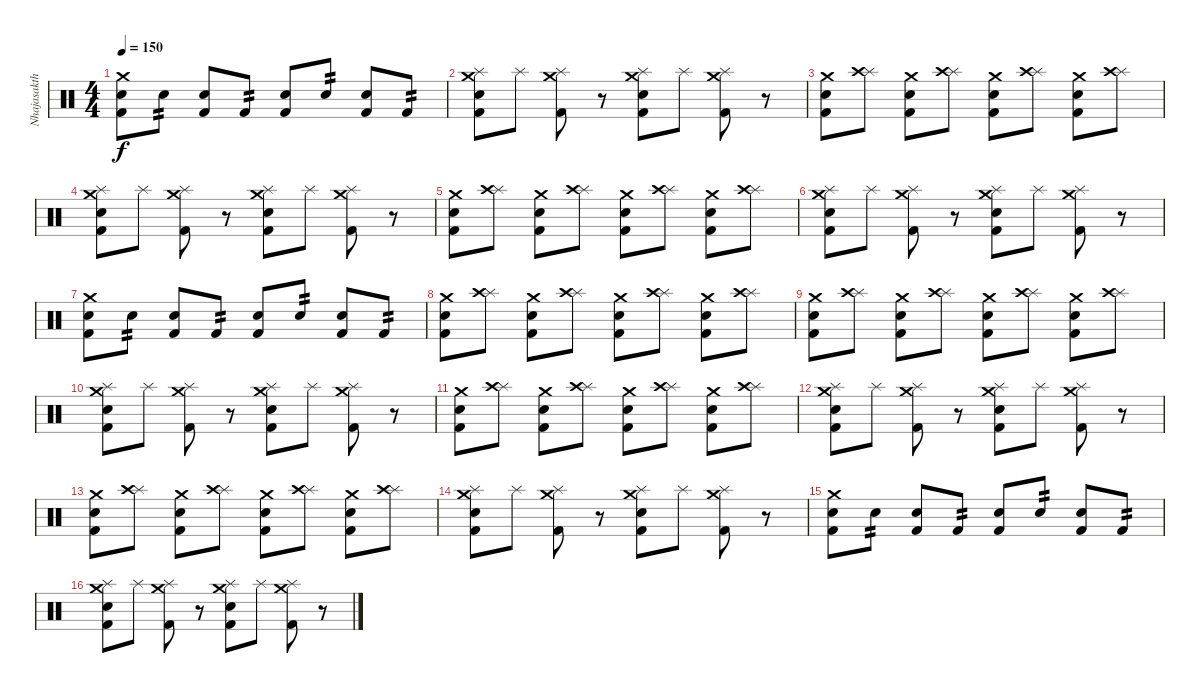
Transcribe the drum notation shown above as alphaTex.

\track ("Nhajasakthee" "Nhajasakth") {instrument percussion}
\staff {score}
\articulation defaults
\ts (4 4)
\tempo 150
\clef neutral
\ks c
("Crash medium (hit)" "Kick (hit) 2" "Electric Snare (hit)").8{dy f} "Electric Snare (hit)".8{tp 2} ("Kick (hit) 2" "Electric Snare (hit)").8 "Kick (hit) 2".8{tp 2} ("Kick (hit) 2" "Electric Snare (hit)").8 "Electric Snare (hit)".8{tp 2} ("Kick (hit) 2" "Electric Snare (hit)").8 "Kick (hit) 2".8{tp 2} |
("Splash (hit)" "Crash medium (hit)" "Kick (hit) 2" "Electric Snare (hit)").8 "Splash (hit)".8 ("Splash (hit)" "Crash medium (hit)" "Kick (hit) 2").8 r.8 ("Splash (hit)" "Crash medium (hit)" "Kick (hit) 2" "Electric Snare (hit)").8 "Splash (hit)".8 ("Splash (hit)" "Crash medium (hit)" "Kick (hit) 2").8 r.8 |
("Crash medium (hit)" "Kick (hit) 2" "Electric Snare (hit)").8 ("Splash (hit)" "Crash high (hit)").8 ("Crash medium (hit)" "Kick (hit) 2" "Electric Snare (hit)").8 ("Splash (hit)" "Crash high (hit)").8 ("Crash medium (hit)" "Kick (hit) 2" "Electric Snare (hit)").8 ("Splash (hit)" "Crash high (hit)").8 ("Crash medium (hit)" "Kick (hit) 2" "Electric Snare (hit)").8 ("Splash (hit)" "Crash high (hit)").8 |
("Splash (hit)" "Crash medium (hit)" "Kick (hit) 2" "Electric Snare (hit)").8 "Splash (hit)".8 ("Splash (hit)" "Crash medium (hit)" "Kick (hit) 2").8 r.8 ("Splash (hit)" "Crash medium (hit)" "Kick (hit) 2" "Electric Snare (hit)").8 "Splash (hit)".8 ("Splash (hit)" "Crash medium (hit)" "Kick (hit) 2").8 r.8 |
("Crash medium (hit)" "Kick (hit) 2" "Electric Snare (hit)").8 ("Splash (hit)" "Crash high (hit)").8 ("Crash medium (hit)" "Kick (hit) 2" "Electric Snare (hit)").8 ("Splash (hit)" "Crash high (hit)").8 ("Crash medium (hit)" "Kick (hit) 2" "Electric Snare (hit)").8 ("Splash (hit)" "Crash high (hit)").8 ("Crash medium (hit)" "Kick (hit) 2" "Electric Snare (hit)").8 ("Splash (hit)" "Crash high (hit)").8 |
("Splash (hit)" "Crash medium (hit)" "Kick (hit) 2" "Electric Snare (hit)").8 "Splash (hit)".8 ("Splash (hit)" "Crash medium (hit)" "Kick (hit) 2").8 r.8 ("Splash (hit)" "Crash medium (hit)" "Kick (hit) 2" "Electric Snare (hit)").8 "Splash (hit)".8 ("Splash (hit)" "Crash medium (hit)" "Kick (hit) 2").8 r.8 |
("Crash medium (hit)" "Kick (hit) 2" "Electric Snare (hit)").8 "Electric Snare (hit)".8{tp 2} ("Kick (hit) 2" "Electric Snare (hit)").8 "Kick (hit) 2".8{tp 2} ("Kick (hit) 2" "Electric Snare (hit)").8 "Electric Snare (hit)".8{tp 2} ("Kick (hit) 2" "Electric Snare (hit)").8 "Kick (hit) 2".8{tp 2} |
("Crash medium (hit)" "Kick (hit) 2" "Electric Snare (hit)").8 ("Splash (hit)" "Crash high (hit)").8 ("Crash medium (hit)" "Kick (hit) 2" "Electric Snare (hit)").8 ("Splash (hit)" "Crash high (hit)").8 ("Crash medium (hit)" "Kick (hit) 2" "Electric Snare (hit)").8 ("Splash (hit)" "Crash high (hit)").8 ("Crash medium (hit)" "Kick (hit) 2" "Electric Snare (hit)").8 ("Splash (hit)" "Crash high (hit)").8 |
("Crash medium (hit)" "Kick (hit) 2" "Electric Snare (hit)").8 ("Splash (hit)" "Crash high (hit)").8 ("Crash medium (hit)" "Kick (hit) 2" "Electric Snare (hit)").8 ("Splash (hit)" "Crash high (hit)").8 ("Crash medium (hit)" "Kick (hit) 2" "Electric Snare (hit)").8 ("Splash (hit)" "Crash high (hit)").8 ("Crash medium (hit)" "Kick (hit) 2" "Electric Snare (hit)").8 ("Splash (hit)" "Crash high (hit)").8 |
("Splash (hit)" "Crash medium (hit)" "Kick (hit) 2" "Electric Snare (hit)").8 "Splash (hit)".8 ("Splash (hit)" "Crash medium (hit)" "Kick (hit) 2").8 r.8 ("Splash (hit)" "Crash medium (hit)" "Kick (hit) 2" "Electric Snare (hit)").8 "Splash (hit)".8 ("Splash (hit)" "Crash medium (hit)" "Kick (hit) 2").8 r.8 |
("Crash medium (hit)" "Kick (hit) 2" "Electric Snare (hit)").8 ("Splash (hit)" "Crash high (hit)").8 ("Crash medium (hit)" "Kick (hit) 2" "Electric Snare (hit)").8 ("Splash (hit)" "Crash high (hit)").8 ("Crash medium (hit)" "Kick (hit) 2" "Electric Snare (hit)").8 ("Splash (hit)" "Crash high (hit)").8 ("Crash medium (hit)" "Kick (hit) 2" "Electric Snare (hit)").8 ("Splash (hit)" "Crash high (hit)").8 |
("Splash (hit)" "Crash medium (hit)" "Kick (hit) 2" "Electric Snare (hit)").8 "Splash (hit)".8 ("Splash (hit)" "Crash medium (hit)" "Kick (hit) 2").8 r.8 ("Splash (hit)" "Crash medium (hit)" "Kick (hit) 2" "Electric Snare (hit)").8 "Splash (hit)".8 ("Splash (hit)" "Crash medium (hit)" "Kick (hit) 2").8 r.8 |
("Crash medium (hit)" "Kick (hit) 2" "Electric Snare (hit)").8 ("Splash (hit)" "Crash high (hit)").8 ("Crash medium (hit)" "Kick (hit) 2" "Electric Snare (hit)").8 ("Splash (hit)" "Crash high (hit)").8 ("Crash medium (hit)" "Kick (hit) 2" "Electric Snare (hit)").8 ("Splash (hit)" "Crash high (hit)").8 ("Crash medium (hit)" "Kick (hit) 2" "Electric Snare (hit)").8 ("Splash (hit)" "Crash high (hit)").8 |
("Splash (hit)" "Crash medium (hit)" "Kick (hit) 2" "Electric Snare (hit)").8 "Splash (hit)".8 ("Splash (hit)" "Crash medium (hit)" "Kick (hit) 2").8 r.8 ("Splash (hit)" "Crash medium (hit)" "Kick (hit) 2" "Electric Snare (hit)").8 "Splash (hit)".8 ("Splash (hit)" "Crash medium (hit)" "Kick (hit) 2").8 r.8 |
("Crash medium (hit)" "Kick (hit) 2" "Electric Snare (hit)").8 "Electric Snare (hit)".8{tp 2} ("Kick (hit) 2" "Electric Snare (hit)").8 "Kick (hit) 2".8{tp 2} ("Kick (hit) 2" "Electric Snare (hit)").8 "Electric Snare (hit)".8{tp 2} ("Kick (hit) 2" "Electric Snare (hit)").8 "Kick (hit) 2".8{tp 2} |
("Splash (hit)" "Crash medium (hit)" "Kick (hit) 2" "Electric Snare (hit)").8 "Splash (hit)".8 ("Splash (hit)" "Crash medium (hit)" "Kick (hit) 2").8 r.8 ("Splash (hit)" "Crash medium (hit)" "Kick (hit) 2" "Electric Snare (hit)").8 "Splash (hit)".8 ("Splash (hit)" "Crash medium (hit)" "Kick (hit) 2").8 r.8
